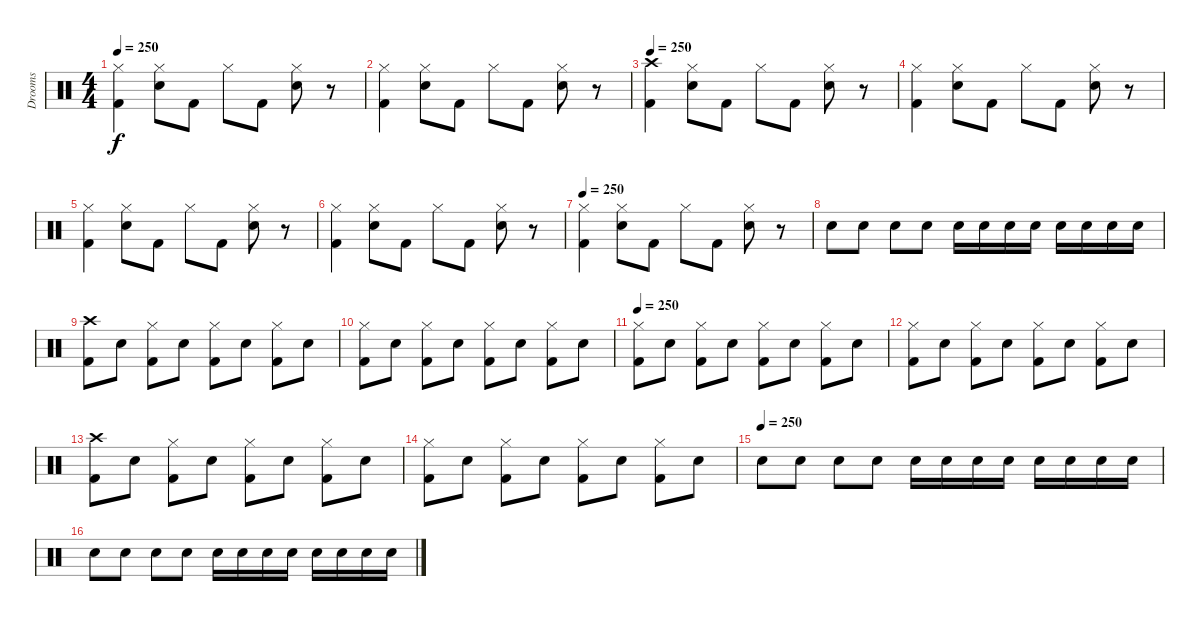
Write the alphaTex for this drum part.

\track ("Drooms" "Drooms") {instrument percussion}
\staff {score}
\articulation defaults
\ts (4 4)
\tempo 250
\clef neutral
\ks c
("Hi-Hat (closed)" "Kick (hit) 2").4{dy f} ("Hi-Hat (closed)" "Snare (hit) 2").8 "Kick (hit) 2".8 "Hi-Hat (closed)".8 "Kick (hit) 2".8 ("Hi-Hat (closed)" "Snare (hit) 2").8 r.8 |
("Hi-Hat (closed)" "Kick (hit) 2").4 ("Hi-Hat (closed)" "Snare (hit) 2").8 "Kick (hit) 2".8 "Hi-Hat (closed)".8 "Kick (hit) 2".8 ("Hi-Hat (closed)" "Snare (hit) 2").8 r.8 |
\tempo 250
("Crash high (hit)" "Kick (hit) 2").4 ("Hi-Hat (closed)" "Snare (hit) 2").8 "Kick (hit) 2".8 "Hi-Hat (closed)".8 "Kick (hit) 2".8 ("Hi-Hat (closed)" "Snare (hit) 2").8 r.8 |
("Hi-Hat (closed)" "Kick (hit) 2").4 ("Hi-Hat (closed)" "Snare (hit) 2").8 "Kick (hit) 2".8 "Hi-Hat (closed)".8 "Kick (hit) 2".8 ("Hi-Hat (closed)" "Snare (hit) 2").8 r.8 |
("Hi-Hat (closed)" "Kick (hit) 2").4 ("Hi-Hat (closed)" "Snare (hit) 2").8 "Kick (hit) 2".8 "Hi-Hat (closed)".8 "Kick (hit) 2".8 ("Hi-Hat (closed)" "Snare (hit) 2").8 r.8 |
("Hi-Hat (closed)" "Kick (hit) 2").4 ("Hi-Hat (closed)" "Snare (hit) 2").8 "Kick (hit) 2".8 "Hi-Hat (closed)".8 "Kick (hit) 2".8 ("Hi-Hat (closed)" "Snare (hit) 2").8 r.8 |
\tempo 250
("Hi-Hat (closed)" "Kick (hit) 2").4 ("Hi-Hat (closed)" "Snare (hit) 2").8 "Kick (hit) 2".8 "Hi-Hat (closed)".8 "Kick (hit) 2".8 ("Hi-Hat (closed)" "Snare (hit) 2").8 r.8 |
"Snare (hit) 2".8 "Snare (hit) 2".8 "Snare (hit) 2".8 "Snare (hit) 2".8 "Snare (hit) 2".16 "Snare (hit) 2".16 "Snare (hit) 2".16 "Snare (hit) 2".16 "Snare (hit) 2".16 "Snare (hit) 2".16 "Snare (hit) 2".16 "Snare (hit) 2".16 |
("Crash high (hit)" "Kick (hit) 2").8 "Snare (hit) 2".8 ("Hi-Hat (closed)" "Kick (hit) 2").8 "Snare (hit) 2".8 ("Hi-Hat (closed)" "Kick (hit) 2").8 "Snare (hit) 2".8 ("Hi-Hat (closed)" "Kick (hit) 2").8 "Snare (hit) 2".8 |
("Hi-Hat (closed)" "Kick (hit) 2").8 "Snare (hit) 2".8 ("Hi-Hat (closed)" "Kick (hit) 2").8 "Snare (hit) 2".8 ("Hi-Hat (closed)" "Kick (hit) 2").8 "Snare (hit) 2".8 ("Hi-Hat (closed)" "Kick (hit) 2").8 "Snare (hit) 2".8 |
\tempo 250
("Hi-Hat (closed)" "Kick (hit) 2").8 "Snare (hit) 2".8 ("Hi-Hat (closed)" "Kick (hit) 2").8 "Snare (hit) 2".8 ("Hi-Hat (closed)" "Kick (hit) 2").8 "Snare (hit) 2".8 ("Hi-Hat (closed)" "Kick (hit) 2").8 "Snare (hit) 2".8 |
("Hi-Hat (closed)" "Kick (hit) 2").8 "Snare (hit) 2".8 ("Hi-Hat (closed)" "Kick (hit) 2").8 "Snare (hit) 2".8 ("Hi-Hat (closed)" "Kick (hit) 2").8 "Snare (hit) 2".8 ("Hi-Hat (closed)" "Kick (hit) 2").8 "Snare (hit) 2".8 |
("Crash high (hit)" "Kick (hit) 2").8 "Snare (hit) 2".8 ("Hi-Hat (closed)" "Kick (hit) 2").8 "Snare (hit) 2".8 ("Hi-Hat (closed)" "Kick (hit) 2").8 "Snare (hit) 2".8 ("Hi-Hat (closed)" "Kick (hit) 2").8 "Snare (hit) 2".8 |
("Hi-Hat (closed)" "Kick (hit) 2").8 "Snare (hit) 2".8 ("Hi-Hat (closed)" "Kick (hit) 2").8 "Snare (hit) 2".8 ("Hi-Hat (closed)" "Kick (hit) 2").8 "Snare (hit) 2".8 ("Hi-Hat (closed)" "Kick (hit) 2").8 "Snare (hit) 2".8 |
\tempo (250)
"Snare (hit) 2".8 "Snare (hit) 2".8 "Snare (hit) 2".8 "Snare (hit) 2".8 "Snare (hit) 2".16 "Snare (hit) 2".16 "Snare (hit) 2".16 "Snare (hit) 2".16 "Snare (hit) 2".16 "Snare (hit) 2".16 "Snare (hit) 2".16 "Snare (hit) 2".16 |
"Snare (hit) 2".8 "Snare (hit) 2".8 "Snare (hit) 2".8 "Snare (hit) 2".8 "Snare (hit) 2".16 "Snare (hit) 2".16 "Snare (hit) 2".16 "Snare (hit) 2".16 "Snare (hit) 2".16 "Snare (hit) 2".16 "Snare (hit) 2".16 "Snare (hit) 2".16
